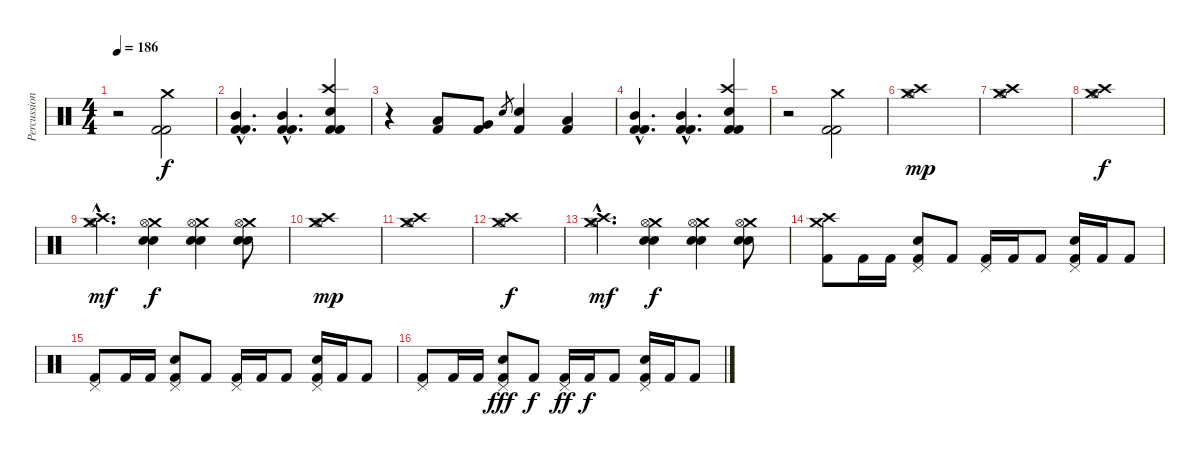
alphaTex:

\track ("Percussion" "Percussion") {instrument percussion}
\staff {score}
\articulation defaults
\ts (4 4)
\tempo 186
\clef neutral
\ks c
r.2{dy f} ("Crash medium (hit)" "Kick (hit) 2" "Kick (hit) 2").2 |
("Mid Tom (hit)"{hac} "Kick (hit) 2"{hac} "Kick (hit) 2"{hac}).4{d} ("Mid Tom (hit)"{hac} "Kick (hit) 2"{hac} "Kick (hit) 2"{hac}).4{d} ("Crash high (hit)" "Electric Snare (hit)" "Kick (hit) 2" "Kick (hit) 2").4 |
r.4 ("Low Floor Tom (hit)" "Kick (hit) 2").8 ("Very Low Tom (hit)" "Kick (hit) 2").8 "Electric Snare (hit)".8{gr} ("Electric Snare (hit)" "Kick (hit) 2").4 ("Low Tom (hit)" "Kick (hit) 2").4 |
("Mid Tom (hit)"{hac} "Kick (hit) 2"{hac} "Kick (hit) 2"{hac}).4{d} ("Mid Tom (hit)"{hac} "Kick (hit) 2"{hac} "Kick (hit) 2"{hac}).4{d} ("Crash high (hit)" "Electric Snare (hit)" "Kick (hit) 2" "Kick (hit) 2").4 |
r.2 ("Crash medium (hit)" "Kick (hit) 2" "Kick (hit) 2").2 |
("Crash high (hit)" "Crash medium (hit)" "Hi-Hat (open)").1{dy mp} |
("Crash high (hit)" "Crash medium (hit)" "Hi-Hat (open)").1 |
("Crash high (hit)" "Crash medium (hit)" "Hi-Hat (open)").1{dy f} |
("Crash medium (hit)"{hac} "Crash high (hit)"{hac} "Hi-Hat (open)"{hac}).4{d dy mf} ("Crash medium (hit)" "Electric Snare (hit)" "Electric Snare (hit)" "Hi-Hat (open)").4{dy f} ("Crash medium (hit)" "Electric Snare (hit)" "Electric Snare (hit)" "Hi-Hat (open)").4 ("Crash medium (hit)" "Electric Snare (hit)" "Electric Snare (hit)" "Hi-Hat (open)").8 |
("Crash high (hit)" "Crash medium (hit)" "Hi-Hat (open)").1{dy mp} |
("Crash high (hit)" "Crash medium (hit)" "Hi-Hat (open)").1 |
("Crash high (hit)" "Crash medium (hit)" "Hi-Hat (open)").1{dy f} |
("Crash medium (hit)"{hac} "Crash high (hit)"{hac} "Hi-Hat (open)"{hac}).4{d dy mf} ("Crash medium (hit)" "Electric Snare (hit)" "Electric Snare (hit)" "Hi-Hat (open)").4{dy f} ("Crash medium (hit)" "Electric Snare (hit)" "Electric Snare (hit)" "Hi-Hat (open)").4 ("Crash medium (hit)" "Electric Snare (hit)" "Electric Snare (hit)" "Hi-Hat (open)").8 |
("Crash high (hit)" "Crash medium (hit)" "Kick (hit) 2").8 "Kick (hit) 2".16 "Kick (hit) 2".16 ("Electric Snare (hit)" "Pedal Hi-Hat (hit)" "Kick (hit) 2").8 "Kick (hit) 2".8 ("Pedal Hi-Hat (hit)" "Kick (hit) 2").16 "Kick (hit) 2".16 "Kick (hit) 2".8 ("Electric Snare (hit)" "Pedal Hi-Hat (hit)" "Kick (hit) 2").16 "Kick (hit) 2".16 "Kick (hit) 2".8 |
("Pedal Hi-Hat (hit)" "Kick (hit) 2").8 "Kick (hit) 2".16 "Kick (hit) 2".16 ("Electric Snare (hit)" "Pedal Hi-Hat (hit)" "Kick (hit) 2").8 "Kick (hit) 2".8 ("Pedal Hi-Hat (hit)" "Kick (hit) 2").16 "Kick (hit) 2".16 "Kick (hit) 2".8 ("Electric Snare (hit)" "Pedal Hi-Hat (hit)" "Kick (hit) 2").16 "Kick (hit) 2".16 "Kick (hit) 2".8 |
("Pedal Hi-Hat (hit)" "Kick (hit) 2").8 "Kick (hit) 2".16 "Kick (hit) 2".16 ("Electric Snare (hit)" "Pedal Hi-Hat (hit)" "Kick (hit) 2").8{dy fff} "Kick (hit) 2".8{dy f} ("Pedal Hi-Hat (hit)" "Kick (hit) 2").16{dy ff} "Kick (hit) 2".16{dy f} "Kick (hit) 2".8 ("Electric Snare (hit)" "Pedal Hi-Hat (hit)" "Kick (hit) 2").16 "Kick (hit) 2".16 "Kick (hit) 2".8
